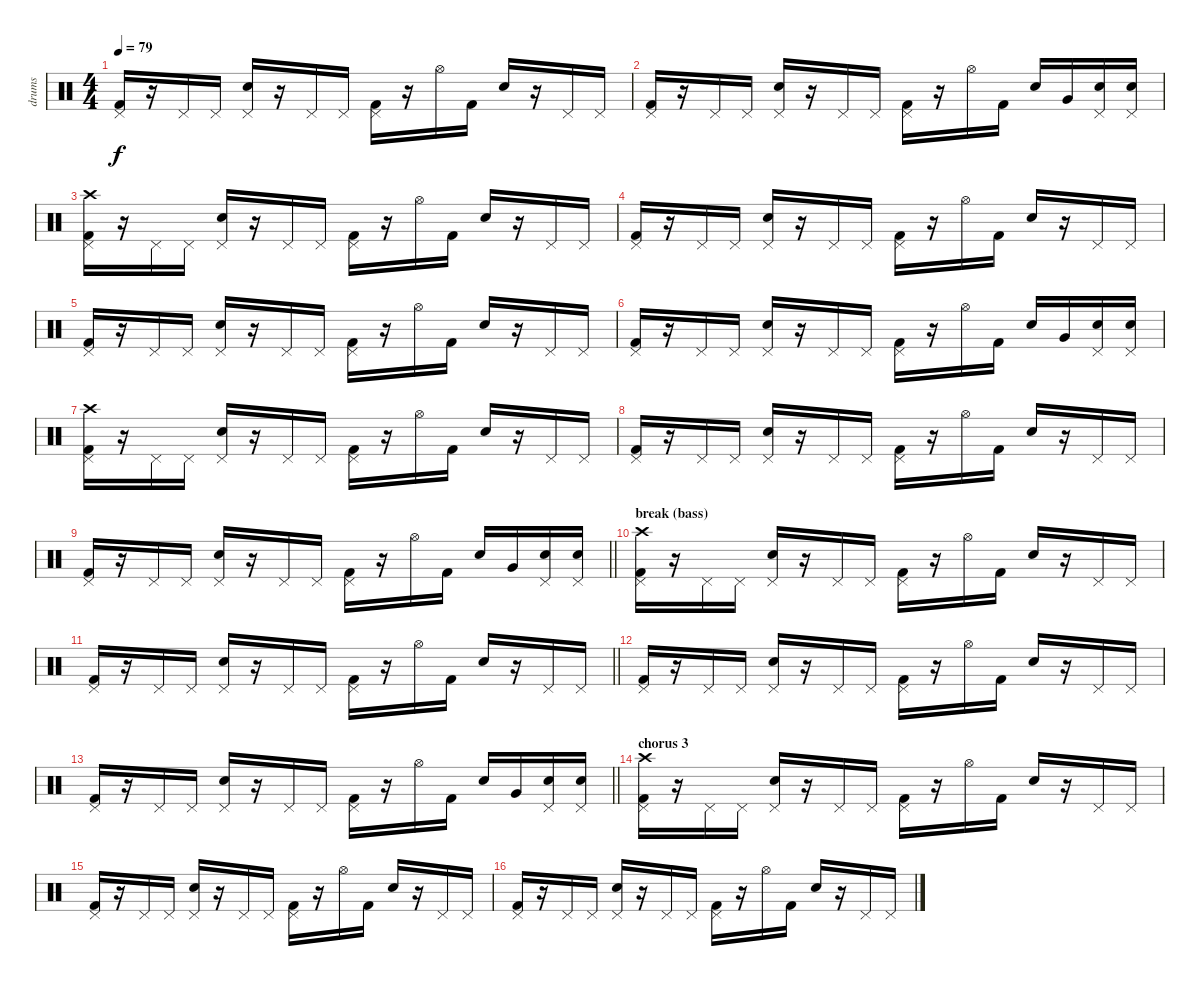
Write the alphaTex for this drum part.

\track ("drums" "drums") {instrument percussion}
\staff {score}
\articulation defaults
\ts (4 4)
\tempo 79
\clef neutral
\ks c
("Kick (hit) 2" "Pedal Hi-Hat (hit)").16{dy f} r.16 "Pedal Hi-Hat (hit)".16 "Pedal Hi-Hat (hit)".16 ("Electric Snare (hit)" "Pedal Hi-Hat (hit)").16 r.16 "Pedal Hi-Hat (hit)".16 "Pedal Hi-Hat (hit)".16 ("Kick (hit) 2" "Pedal Hi-Hat (hit)").16 r.16 "Hi-Hat (open)".16 "Kick (hit) 2".16 "Electric Snare (hit)".16 r.16 "Pedal Hi-Hat (hit)".16 "Pedal Hi-Hat (hit)".16 |
("Kick (hit) 2" "Pedal Hi-Hat (hit)").16 r.16 "Pedal Hi-Hat (hit)".16 "Pedal Hi-Hat (hit)".16 ("Electric Snare (hit)" "Pedal Hi-Hat (hit)").16 r.16 "Pedal Hi-Hat (hit)".16 "Pedal Hi-Hat (hit)".16 ("Kick (hit) 2" "Pedal Hi-Hat (hit)").16 r.16 "Hi-Hat (open)".16 "Kick (hit) 2".16 "Electric Snare (hit)".16 "Very Low Tom (hit)".16 ("Electric Snare (hit)" "Pedal Hi-Hat (hit)").16 ("Electric Snare (hit)" "Pedal Hi-Hat (hit)").16 |
("Kick (hit) 2" "Pedal Hi-Hat (hit)" "Crash high (hit)").16 r.16 "Pedal Hi-Hat (hit)".16 "Pedal Hi-Hat (hit)".16 ("Electric Snare (hit)" "Pedal Hi-Hat (hit)").16 r.16 "Pedal Hi-Hat (hit)".16 "Pedal Hi-Hat (hit)".16 ("Kick (hit) 2" "Pedal Hi-Hat (hit)").16 r.16 "Hi-Hat (open)".16 "Kick (hit) 2".16 "Electric Snare (hit)".16 r.16 "Pedal Hi-Hat (hit)".16 "Pedal Hi-Hat (hit)".16 |
("Kick (hit) 2" "Pedal Hi-Hat (hit)").16 r.16 "Pedal Hi-Hat (hit)".16 "Pedal Hi-Hat (hit)".16 ("Electric Snare (hit)" "Pedal Hi-Hat (hit)").16 r.16 "Pedal Hi-Hat (hit)".16 "Pedal Hi-Hat (hit)".16 ("Kick (hit) 2" "Pedal Hi-Hat (hit)").16 r.16 "Hi-Hat (open)".16 "Kick (hit) 2".16 "Electric Snare (hit)".16 r.16 "Pedal Hi-Hat (hit)".16 "Pedal Hi-Hat (hit)".16 |
("Kick (hit) 2" "Pedal Hi-Hat (hit)").16 r.16 "Pedal Hi-Hat (hit)".16 "Pedal Hi-Hat (hit)".16 ("Electric Snare (hit)" "Pedal Hi-Hat (hit)").16 r.16 "Pedal Hi-Hat (hit)".16 "Pedal Hi-Hat (hit)".16 ("Kick (hit) 2" "Pedal Hi-Hat (hit)").16 r.16 "Hi-Hat (open)".16 "Kick (hit) 2".16 "Electric Snare (hit)".16 r.16 "Pedal Hi-Hat (hit)".16 "Pedal Hi-Hat (hit)".16 |
("Kick (hit) 2" "Pedal Hi-Hat (hit)").16 r.16 "Pedal Hi-Hat (hit)".16 "Pedal Hi-Hat (hit)".16 ("Electric Snare (hit)" "Pedal Hi-Hat (hit)").16 r.16 "Pedal Hi-Hat (hit)".16 "Pedal Hi-Hat (hit)".16 ("Kick (hit) 2" "Pedal Hi-Hat (hit)").16 r.16 "Hi-Hat (open)".16 "Kick (hit) 2".16 "Electric Snare (hit)".16 "Very Low Tom (hit)".16 ("Electric Snare (hit)" "Pedal Hi-Hat (hit)").16 ("Electric Snare (hit)" "Pedal Hi-Hat (hit)").16 |
("Kick (hit) 2" "Pedal Hi-Hat (hit)" "Crash high (hit)").16 r.16 "Pedal Hi-Hat (hit)".16 "Pedal Hi-Hat (hit)".16 ("Electric Snare (hit)" "Pedal Hi-Hat (hit)").16 r.16 "Pedal Hi-Hat (hit)".16 "Pedal Hi-Hat (hit)".16 ("Kick (hit) 2" "Pedal Hi-Hat (hit)").16 r.16 "Hi-Hat (open)".16 "Kick (hit) 2".16 "Electric Snare (hit)".16 r.16 "Pedal Hi-Hat (hit)".16 "Pedal Hi-Hat (hit)".16 |
("Kick (hit) 2" "Pedal Hi-Hat (hit)").16 r.16 "Pedal Hi-Hat (hit)".16 "Pedal Hi-Hat (hit)".16 ("Electric Snare (hit)" "Pedal Hi-Hat (hit)").16 r.16 "Pedal Hi-Hat (hit)".16 "Pedal Hi-Hat (hit)".16 ("Kick (hit) 2" "Pedal Hi-Hat (hit)").16 r.16 "Hi-Hat (open)".16 "Kick (hit) 2".16 "Electric Snare (hit)".16 r.16 "Pedal Hi-Hat (hit)".16 "Pedal Hi-Hat (hit)".16 |
\barLineRight lightlight
("Kick (hit) 2" "Pedal Hi-Hat (hit)").16 r.16 "Pedal Hi-Hat (hit)".16 "Pedal Hi-Hat (hit)".16 ("Electric Snare (hit)" "Pedal Hi-Hat (hit)").16 r.16 "Pedal Hi-Hat (hit)".16 "Pedal Hi-Hat (hit)".16 ("Kick (hit) 2" "Pedal Hi-Hat (hit)").16 r.16 "Hi-Hat (open)".16 "Kick (hit) 2".16 "Electric Snare (hit)".16 "Very Low Tom (hit)".16 ("Electric Snare (hit)" "Pedal Hi-Hat (hit)").16 ("Electric Snare (hit)" "Pedal Hi-Hat (hit)").16 |
\section ("" "break (bass) ")
("Kick (hit) 2" "Pedal Hi-Hat (hit)" "Crash high (hit)").16 r.16 "Pedal Hi-Hat (hit)".16 "Pedal Hi-Hat (hit)".16 ("Electric Snare (hit)" "Pedal Hi-Hat (hit)").16 r.16 "Pedal Hi-Hat (hit)".16 "Pedal Hi-Hat (hit)".16 ("Kick (hit) 2" "Pedal Hi-Hat (hit)").16 r.16 "Hi-Hat (open)".16 "Kick (hit) 2".16 "Electric Snare (hit)".16 r.16 "Pedal Hi-Hat (hit)".16 "Pedal Hi-Hat (hit)".16 |
\barLineRight lightlight
("Kick (hit) 2" "Pedal Hi-Hat (hit)").16 r.16 "Pedal Hi-Hat (hit)".16 "Pedal Hi-Hat (hit)".16 ("Electric Snare (hit)" "Pedal Hi-Hat (hit)").16 r.16 "Pedal Hi-Hat (hit)".16 "Pedal Hi-Hat (hit)".16 ("Kick (hit) 2" "Pedal Hi-Hat (hit)").16 r.16 "Hi-Hat (open)".16 "Kick (hit) 2".16 "Electric Snare (hit)".16 r.16 "Pedal Hi-Hat (hit)".16 "Pedal Hi-Hat (hit)".16 |
("Kick (hit) 2" "Pedal Hi-Hat (hit)").16 r.16 "Pedal Hi-Hat (hit)".16 "Pedal Hi-Hat (hit)".16 ("Electric Snare (hit)" "Pedal Hi-Hat (hit)").16 r.16 "Pedal Hi-Hat (hit)".16 "Pedal Hi-Hat (hit)".16 ("Kick (hit) 2" "Pedal Hi-Hat (hit)").16 r.16 "Hi-Hat (open)".16 "Kick (hit) 2".16 "Electric Snare (hit)".16 r.16 "Pedal Hi-Hat (hit)".16 "Pedal Hi-Hat (hit)".16 |
\barLineRight lightlight
("Kick (hit) 2" "Pedal Hi-Hat (hit)").16 r.16 "Pedal Hi-Hat (hit)".16 "Pedal Hi-Hat (hit)".16 ("Electric Snare (hit)" "Pedal Hi-Hat (hit)").16 r.16 "Pedal Hi-Hat (hit)".16 "Pedal Hi-Hat (hit)".16 ("Kick (hit) 2" "Pedal Hi-Hat (hit)").16 r.16 "Hi-Hat (open)".16 "Kick (hit) 2".16 "Electric Snare (hit)".16 "Very Low Tom (hit)".16 ("Electric Snare (hit)" "Pedal Hi-Hat (hit)").16 ("Electric Snare (hit)" "Pedal Hi-Hat (hit)").16 |
\section ("" "chorus 3")
("Kick (hit) 2" "Pedal Hi-Hat (hit)" "Crash high (hit)").16 r.16 "Pedal Hi-Hat (hit)".16 "Pedal Hi-Hat (hit)".16 ("Electric Snare (hit)" "Pedal Hi-Hat (hit)").16 r.16 "Pedal Hi-Hat (hit)".16 "Pedal Hi-Hat (hit)".16 ("Kick (hit) 2" "Pedal Hi-Hat (hit)").16 r.16 "Hi-Hat (open)".16 "Kick (hit) 2".16 "Electric Snare (hit)".16 r.16 "Pedal Hi-Hat (hit)".16 "Pedal Hi-Hat (hit)".16 |
("Kick (hit) 2" "Pedal Hi-Hat (hit)").16 r.16 "Pedal Hi-Hat (hit)".16 "Pedal Hi-Hat (hit)".16 ("Electric Snare (hit)" "Pedal Hi-Hat (hit)").16 r.16 "Pedal Hi-Hat (hit)".16 "Pedal Hi-Hat (hit)".16 ("Kick (hit) 2" "Pedal Hi-Hat (hit)").16 r.16 "Hi-Hat (open)".16 "Kick (hit) 2".16 "Electric Snare (hit)".16 r.16 "Pedal Hi-Hat (hit)".16 "Pedal Hi-Hat (hit)".16 |
("Kick (hit) 2" "Pedal Hi-Hat (hit)").16 r.16 "Pedal Hi-Hat (hit)".16 "Pedal Hi-Hat (hit)".16 ("Electric Snare (hit)" "Pedal Hi-Hat (hit)").16 r.16 "Pedal Hi-Hat (hit)".16 "Pedal Hi-Hat (hit)".16 ("Kick (hit) 2" "Pedal Hi-Hat (hit)").16 r.16 "Hi-Hat (open)".16 "Kick (hit) 2".16 "Electric Snare (hit)".16 r.16 "Pedal Hi-Hat (hit)".16 "Pedal Hi-Hat (hit)".16
